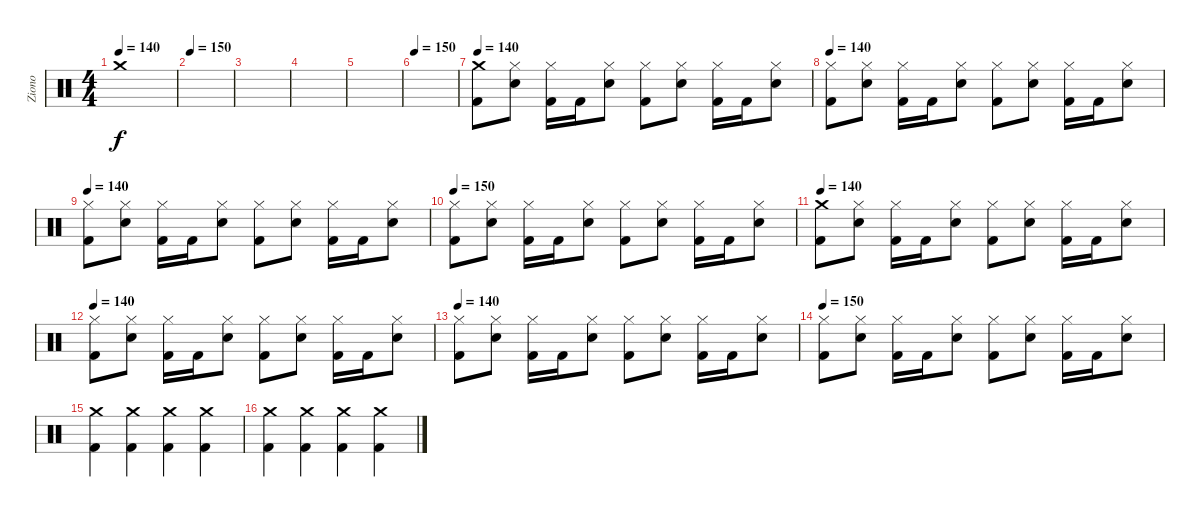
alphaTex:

\track ("Ziono" "Ziono") {instrument percussion}
\staff {score}
\articulation defaults
\ts (4 4)
\tempo 140
\clef neutral
\ks c "Crash medium (hit)"{t}.1{dy f}
|
\tempo 150
|
|
|
|
\tempo 150
|
\tempo 140
("Kick (hit) 2" "Crash medium (hit)").8 ("Hi-Hat (closed)" "Snare (hit) 2").8 ("Hi-Hat (closed)" "Kick (hit) 2").16 "Kick (hit) 2".16 ("Hi-Hat (closed)" "Snare (hit) 2").8 ("Hi-Hat (closed)" "Kick (hit) 2").8 ("Hi-Hat (closed)" "Snare (hit) 2").8 ("Hi-Hat (closed)" "Kick (hit) 2").16 "Kick (hit) 2".16 ("Hi-Hat (closed)" "Snare (hit) 2").8 |
\tempo 140
("Hi-Hat (closed)" "Kick (hit) 2").8 ("Hi-Hat (closed)" "Snare (hit) 2").8 ("Hi-Hat (closed)" "Kick (hit) 2").16 "Kick (hit) 2".16 ("Hi-Hat (closed)" "Snare (hit) 2").8 ("Hi-Hat (closed)" "Kick (hit) 2").8 ("Hi-Hat (closed)" "Snare (hit) 2").8 ("Hi-Hat (closed)" "Kick (hit) 2").16 "Kick (hit) 2".16 ("Hi-Hat (closed)" "Snare (hit) 2").8 |
\tempo 140
("Hi-Hat (closed)" "Kick (hit) 2").8 ("Hi-Hat (closed)" "Snare (hit) 2").8 ("Hi-Hat (closed)" "Kick (hit) 2").16 "Kick (hit) 2".16 ("Hi-Hat (closed)" "Snare (hit) 2").8 ("Hi-Hat (closed)" "Kick (hit) 2").8 ("Hi-Hat (closed)" "Snare (hit) 2").8 ("Hi-Hat (closed)" "Kick (hit) 2").16 "Kick (hit) 2".16 ("Hi-Hat (closed)" "Snare (hit) 2").8 |
\tempo 150
("Hi-Hat (closed)" "Kick (hit) 2").8 ("Hi-Hat (closed)" "Snare (hit) 2").8 ("Hi-Hat (closed)" "Kick (hit) 2").16 "Kick (hit) 2".16 ("Hi-Hat (closed)" "Snare (hit) 2").8 ("Hi-Hat (closed)" "Kick (hit) 2").8 ("Hi-Hat (closed)" "Snare (hit) 2").8 ("Hi-Hat (closed)" "Kick (hit) 2").16 "Kick (hit) 2".16 ("Hi-Hat (closed)" "Snare (hit) 2").8 |
\tempo 140
("Kick (hit) 2" "Crash medium (hit)").8 ("Hi-Hat (closed)" "Snare (hit) 2").8 ("Hi-Hat (closed)" "Kick (hit) 2").16 "Kick (hit) 2".16 ("Hi-Hat (closed)" "Snare (hit) 2").8 ("Hi-Hat (closed)" "Kick (hit) 2").8 ("Hi-Hat (closed)" "Snare (hit) 2").8 ("Hi-Hat (closed)" "Kick (hit) 2").16 "Kick (hit) 2".16 ("Hi-Hat (closed)" "Snare (hit) 2").8 |
\tempo 140
("Hi-Hat (closed)" "Kick (hit) 2").8 ("Hi-Hat (closed)" "Snare (hit) 2").8 ("Hi-Hat (closed)" "Kick (hit) 2").16 "Kick (hit) 2".16 ("Hi-Hat (closed)" "Snare (hit) 2").8 ("Hi-Hat (closed)" "Kick (hit) 2").8 ("Hi-Hat (closed)" "Snare (hit) 2").8 ("Hi-Hat (closed)" "Kick (hit) 2").16 "Kick (hit) 2".16 ("Hi-Hat (closed)" "Snare (hit) 2").8 |
\tempo 140
("Hi-Hat (closed)" "Kick (hit) 2").8 ("Hi-Hat (closed)" "Snare (hit) 2").8 ("Hi-Hat (closed)" "Kick (hit) 2").16 "Kick (hit) 2".16 ("Hi-Hat (closed)" "Snare (hit) 2").8 ("Hi-Hat (closed)" "Kick (hit) 2").8 ("Hi-Hat (closed)" "Snare (hit) 2").8 ("Hi-Hat (closed)" "Kick (hit) 2").16 "Kick (hit) 2".16 ("Hi-Hat (closed)" "Snare (hit) 2").8 |
\tempo 150
("Hi-Hat (closed)" "Kick (hit) 2").8 ("Hi-Hat (closed)" "Snare (hit) 2").8 ("Hi-Hat (closed)" "Kick (hit) 2").16 "Kick (hit) 2".16 ("Hi-Hat (closed)" "Snare (hit) 2").8 ("Hi-Hat (closed)" "Kick (hit) 2").8 ("Hi-Hat (closed)" "Snare (hit) 2").8 ("Hi-Hat (closed)" "Kick (hit) 2").16 "Kick (hit) 2".16 ("Hi-Hat (closed)" "Snare (hit) 2").8 |
("Kick (hit) 2" "Crash medium (hit)").4 ("Kick (hit) 2" "Crash medium (hit)").4 ("Kick (hit) 2" "Crash medium (hit)").4 ("Kick (hit) 2" "Crash medium (hit)").4 |
("Kick (hit) 2" "Crash medium (hit)").4 ("Kick (hit) 2" "Crash medium (hit)").4 ("Kick (hit) 2" "Crash medium (hit)").4 ("Kick (hit) 2" "Crash medium (hit)").4
